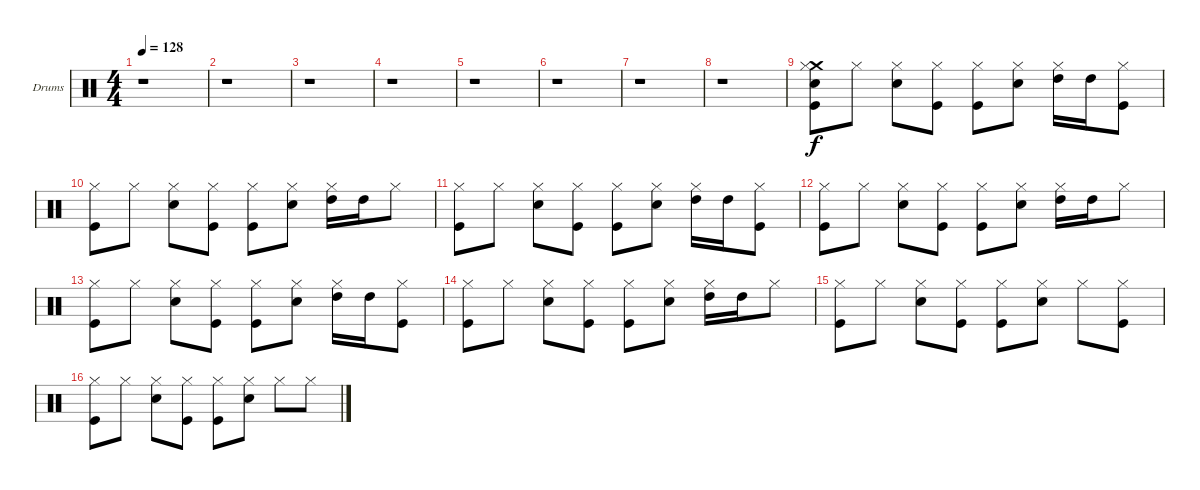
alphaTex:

\bracketExtendMode groupsimilarinstruments
\firstSystemTrackNameOrientation horizontal
\otherSystemsTrackNameOrientation horizontal
\track ("Drumkit (Christoph)" "Drums") {instrument percussion}
\staff {score}
\articulation defaults
\ts (4 4)
\tempo 128
\clef neutral
\ks c
r.1{dy f} |
r.1 |
r.1 |
r.1 |
r.1 |
r.1 |
r.1 |
r.1 |
("Crash medium (hit)" "Kick (hit)" "Snare (hit) 2" "Hi-Hat (closed)").8 "Hi-Hat (closed)".8 ("Snare (hit) 2" "Hi-Hat (closed)").8 ("Kick (hit)" "Hi-Hat (closed)").8 ("Kick (hit)" "Hi-Hat (closed)").8 ("Snare (hit) 2" "Hi-Hat (closed)").8 ("High Tom (hit)" "Hi-Hat (closed)").16 "High Tom (hit)".16 ("Kick (hit)" "Hi-Hat (closed)").8 |
("Kick (hit)" "Hi-Hat (closed)").8 "Hi-Hat (closed)".8 ("Snare (hit) 2" "Hi-Hat (closed)").8 ("Kick (hit)" "Hi-Hat (closed)").8 ("Kick (hit)" "Hi-Hat (closed)").8 ("Snare (hit) 2" "Hi-Hat (closed)").8 ("High Tom (hit)" "Hi-Hat (closed)").16 "High Tom (hit)".16 "Hi-Hat (closed)".8 |
("Kick (hit)" "Hi-Hat (closed)").8 "Hi-Hat (closed)".8 ("Snare (hit) 2" "Hi-Hat (closed)").8 ("Kick (hit)" "Hi-Hat (closed)").8 ("Kick (hit)" "Hi-Hat (closed)").8 ("Snare (hit) 2" "Hi-Hat (closed)").8 ("High Tom (hit)" "Hi-Hat (closed)").16 "High Tom (hit)".16 ("Kick (hit)" "Hi-Hat (closed)").8 |
("Kick (hit)" "Hi-Hat (closed)").8 "Hi-Hat (closed)".8 ("Snare (hit) 2" "Hi-Hat (closed)").8 ("Kick (hit)" "Hi-Hat (closed)").8 ("Kick (hit)" "Hi-Hat (closed)").8 ("Snare (hit) 2" "Hi-Hat (closed)").8 ("High Tom (hit)" "Hi-Hat (closed)").16 "High Tom (hit)".16 "Hi-Hat (closed)".8 |
("Kick (hit)" "Hi-Hat (closed)").8 "Hi-Hat (closed)".8 ("Snare (hit) 2" "Hi-Hat (closed)").8 ("Kick (hit)" "Hi-Hat (closed)").8 ("Kick (hit)" "Hi-Hat (closed)").8 ("Snare (hit) 2" "Hi-Hat (closed)").8 ("High Tom (hit)" "Hi-Hat (closed)").16 "High Tom (hit)".16 ("Kick (hit)" "Hi-Hat (closed)").8 |
("Kick (hit)" "Hi-Hat (closed)").8 "Hi-Hat (closed)".8 ("Snare (hit) 2" "Hi-Hat (closed)").8 ("Kick (hit)" "Hi-Hat (closed)").8 ("Kick (hit)" "Hi-Hat (closed)").8 ("Snare (hit) 2" "Hi-Hat (closed)").8 ("High Tom (hit)" "Hi-Hat (closed)").16 "High Tom (hit)".16 "Hi-Hat (closed)".8 |
("Kick (hit)" "Hi-Hat (closed)").8 "Hi-Hat (closed)".8 ("Snare (hit) 2" "Hi-Hat (closed)").8 ("Kick (hit)" "Hi-Hat (closed)").8 ("Kick (hit)" "Hi-Hat (closed)").8 ("Snare (hit) 2" "Hi-Hat (closed)").8 "Hi-Hat (closed)".8 ("Kick (hit)" "Hi-Hat (closed)").8 |
("Kick (hit)" "Hi-Hat (closed)").8 "Hi-Hat (closed)".8 ("Snare (hit) 2" "Hi-Hat (closed)").8 ("Kick (hit)" "Hi-Hat (closed)").8 ("Kick (hit)" "Hi-Hat (closed)").8 ("Snare (hit) 2" "Hi-Hat (closed)").8 "Hi-Hat (closed)".8 "Hi-Hat (closed)".8
